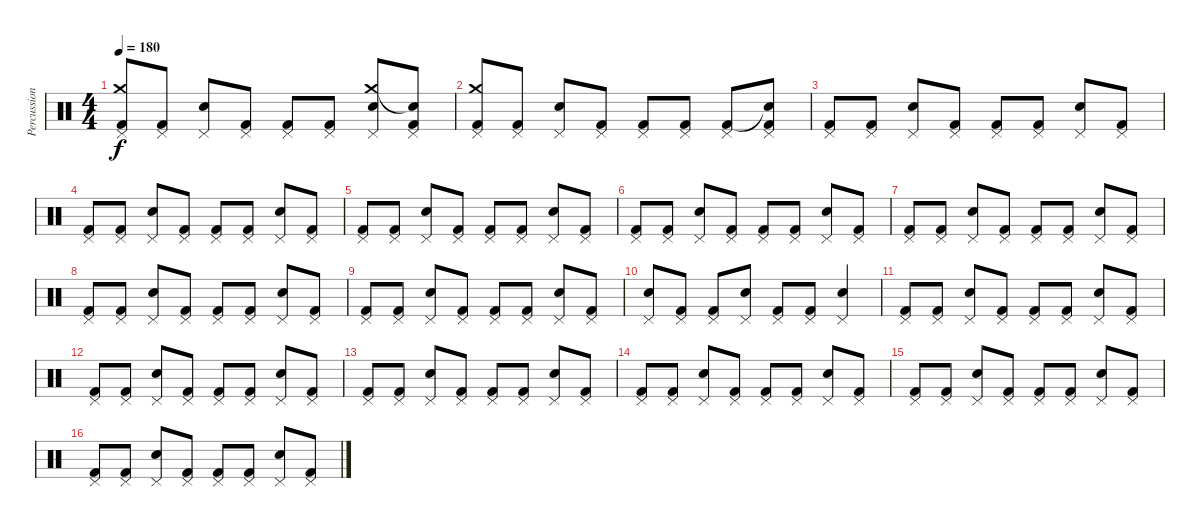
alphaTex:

\track ("Percussion" "Percussion") {instrument percussion}
\staff {score}
\articulation defaults
\ts (4 4)
\tempo 180
\clef neutral
\ks c
("Pedal Hi-Hat (hit)" "Crash medium (hit)" "Kick (hit) 2").8{dy f} ("Pedal Hi-Hat (hit)" "Kick (hit) 2").8 ("Pedal Hi-Hat (hit)" "Snare (hit) 2").8 ("Pedal Hi-Hat (hit)" "Kick (hit) 2").8 ("Pedal Hi-Hat (hit)" "Kick (hit) 2").8 ("Pedal Hi-Hat (hit)" "Kick (hit) 2").8 ("Pedal Hi-Hat (hit)" "Crash medium (hit)" "Snare (hit) 2").8 ("Pedal Hi-Hat (hit)" "Snare (hit)"{t} "Kick (hit) 2").8 |
("Pedal Hi-Hat (hit)" "Crash medium (hit)" "Kick (hit) 2").8 ("Pedal Hi-Hat (hit)" "Kick (hit) 2").8 ("Pedal Hi-Hat (hit)" "Snare (hit) 2").8 ("Pedal Hi-Hat (hit)" "Kick (hit) 2").8 ("Pedal Hi-Hat (hit)" "Kick (hit) 2").8 ("Pedal Hi-Hat (hit)" "Kick (hit) 2").8 ("Pedal Hi-Hat (hit)" "Kick (hit) 2").8 ("Pedal Hi-Hat (hit)" "Snare (hit)"{t} "Kick (hit) 2").8 |
("Pedal Hi-Hat (hit)" "Kick (hit) 2").8 ("Pedal Hi-Hat (hit)" "Kick (hit) 2").8 ("Pedal Hi-Hat (hit)" "Snare (hit) 2").8 ("Pedal Hi-Hat (hit)" "Kick (hit) 2").8 ("Pedal Hi-Hat (hit)" "Kick (hit) 2").8 ("Pedal Hi-Hat (hit)" "Kick (hit) 2").8 ("Pedal Hi-Hat (hit)" "Snare (hit) 2").8 ("Pedal Hi-Hat (hit)" "Kick (hit) 2").8 |
("Pedal Hi-Hat (hit)" "Kick (hit) 2").8 ("Pedal Hi-Hat (hit)" "Kick (hit) 2").8 ("Pedal Hi-Hat (hit)" "Snare (hit) 2").8 ("Pedal Hi-Hat (hit)" "Kick (hit) 2").8 ("Pedal Hi-Hat (hit)" "Kick (hit) 2").8 ("Pedal Hi-Hat (hit)" "Kick (hit) 2").8 ("Pedal Hi-Hat (hit)" "Snare (hit) 2").8 ("Pedal Hi-Hat (hit)" "Kick (hit) 2").8 |
("Pedal Hi-Hat (hit)" "Kick (hit) 2").8 ("Pedal Hi-Hat (hit)" "Kick (hit) 2").8 ("Pedal Hi-Hat (hit)" "Snare (hit) 2").8 ("Pedal Hi-Hat (hit)" "Kick (hit) 2").8 ("Pedal Hi-Hat (hit)" "Kick (hit) 2").8 ("Pedal Hi-Hat (hit)" "Kick (hit) 2").8 ("Pedal Hi-Hat (hit)" "Snare (hit) 2").8 ("Pedal Hi-Hat (hit)" "Kick (hit) 2").8 |
("Pedal Hi-Hat (hit)" "Kick (hit) 2").8 ("Pedal Hi-Hat (hit)" "Kick (hit) 2").8 ("Pedal Hi-Hat (hit)" "Snare (hit) 2").8 ("Pedal Hi-Hat (hit)" "Kick (hit) 2").8 ("Pedal Hi-Hat (hit)" "Kick (hit) 2").8 ("Pedal Hi-Hat (hit)" "Kick (hit) 2").8 ("Pedal Hi-Hat (hit)" "Snare (hit) 2").8 ("Pedal Hi-Hat (hit)" "Kick (hit) 2").8 |
("Pedal Hi-Hat (hit)" "Kick (hit) 2").8 ("Pedal Hi-Hat (hit)" "Kick (hit) 2").8 ("Pedal Hi-Hat (hit)" "Snare (hit) 2").8 ("Pedal Hi-Hat (hit)" "Kick (hit) 2").8 ("Pedal Hi-Hat (hit)" "Kick (hit) 2").8 ("Pedal Hi-Hat (hit)" "Kick (hit) 2").8 ("Pedal Hi-Hat (hit)" "Snare (hit) 2").8 ("Pedal Hi-Hat (hit)" "Kick (hit) 2").8 |
("Pedal Hi-Hat (hit)" "Kick (hit) 2").8 ("Pedal Hi-Hat (hit)" "Kick (hit) 2").8 ("Pedal Hi-Hat (hit)" "Snare (hit) 2").8 ("Pedal Hi-Hat (hit)" "Kick (hit) 2").8 ("Pedal Hi-Hat (hit)" "Kick (hit) 2").8 ("Pedal Hi-Hat (hit)" "Kick (hit) 2").8 ("Pedal Hi-Hat (hit)" "Snare (hit) 2").8 ("Pedal Hi-Hat (hit)" "Kick (hit) 2").8 |
("Pedal Hi-Hat (hit)" "Kick (hit) 2").8 ("Pedal Hi-Hat (hit)" "Kick (hit) 2").8 ("Pedal Hi-Hat (hit)" "Snare (hit) 2").8 ("Pedal Hi-Hat (hit)" "Kick (hit) 2").8 ("Pedal Hi-Hat (hit)" "Kick (hit) 2").8 ("Pedal Hi-Hat (hit)" "Kick (hit) 2").8 ("Pedal Hi-Hat (hit)" "Snare (hit) 2").8 ("Pedal Hi-Hat (hit)" "Kick (hit) 2").8 |
("Pedal Hi-Hat (hit)" "Snare (hit) 2").8 ("Pedal Hi-Hat (hit)" "Kick (hit) 2").8 ("Pedal Hi-Hat (hit)" "Kick (hit) 2").8 ("Pedal Hi-Hat (hit)" "Snare (hit) 2").8 ("Pedal Hi-Hat (hit)" "Kick (hit) 2").8 ("Pedal Hi-Hat (hit)" "Kick (hit) 2").8 ("Pedal Hi-Hat (hit)" "Snare (hit) 2").4 |
("Pedal Hi-Hat (hit)" "Kick (hit) 2").8 ("Pedal Hi-Hat (hit)" "Kick (hit) 2").8 ("Pedal Hi-Hat (hit)" "Snare (hit) 2").8 ("Pedal Hi-Hat (hit)" "Kick (hit) 2").8 ("Pedal Hi-Hat (hit)" "Kick (hit) 2").8 ("Pedal Hi-Hat (hit)" "Kick (hit) 2").8 ("Pedal Hi-Hat (hit)" "Snare (hit) 2").8 ("Pedal Hi-Hat (hit)" "Kick (hit) 2").8 |
("Pedal Hi-Hat (hit)" "Kick (hit) 2").8 ("Pedal Hi-Hat (hit)" "Kick (hit) 2").8 ("Pedal Hi-Hat (hit)" "Snare (hit) 2").8 ("Pedal Hi-Hat (hit)" "Kick (hit) 2").8 ("Pedal Hi-Hat (hit)" "Kick (hit) 2").8 ("Pedal Hi-Hat (hit)" "Kick (hit) 2").8 ("Pedal Hi-Hat (hit)" "Snare (hit) 2").8 ("Pedal Hi-Hat (hit)" "Kick (hit) 2").8 |
("Pedal Hi-Hat (hit)" "Kick (hit) 2").8 ("Pedal Hi-Hat (hit)" "Kick (hit) 2").8 ("Pedal Hi-Hat (hit)" "Snare (hit) 2").8 ("Pedal Hi-Hat (hit)" "Kick (hit) 2").8 ("Pedal Hi-Hat (hit)" "Kick (hit) 2").8 ("Pedal Hi-Hat (hit)" "Kick (hit) 2").8 ("Pedal Hi-Hat (hit)" "Snare (hit) 2").8 ("Pedal Hi-Hat (hit)" "Kick (hit) 2").8 |
("Pedal Hi-Hat (hit)" "Kick (hit) 2").8 ("Pedal Hi-Hat (hit)" "Kick (hit) 2").8 ("Pedal Hi-Hat (hit)" "Snare (hit) 2").8 ("Pedal Hi-Hat (hit)" "Kick (hit) 2").8 ("Pedal Hi-Hat (hit)" "Kick (hit) 2").8 ("Pedal Hi-Hat (hit)" "Kick (hit) 2").8 ("Pedal Hi-Hat (hit)" "Snare (hit) 2").8 ("Pedal Hi-Hat (hit)" "Kick (hit) 2").8 |
("Pedal Hi-Hat (hit)" "Kick (hit) 2").8 ("Pedal Hi-Hat (hit)" "Kick (hit) 2").8 ("Pedal Hi-Hat (hit)" "Snare (hit) 2").8 ("Pedal Hi-Hat (hit)" "Kick (hit) 2").8 ("Pedal Hi-Hat (hit)" "Kick (hit) 2").8 ("Pedal Hi-Hat (hit)" "Kick (hit) 2").8 ("Pedal Hi-Hat (hit)" "Snare (hit) 2").8 ("Pedal Hi-Hat (hit)" "Kick (hit) 2").8 |
("Pedal Hi-Hat (hit)" "Kick (hit) 2").8 ("Pedal Hi-Hat (hit)" "Kick (hit) 2").8 ("Pedal Hi-Hat (hit)" "Snare (hit) 2").8 ("Pedal Hi-Hat (hit)" "Kick (hit) 2").8 ("Pedal Hi-Hat (hit)" "Kick (hit) 2").8 ("Pedal Hi-Hat (hit)" "Kick (hit) 2").8 ("Pedal Hi-Hat (hit)" "Snare (hit) 2").8 ("Pedal Hi-Hat (hit)" "Kick (hit) 2").8
